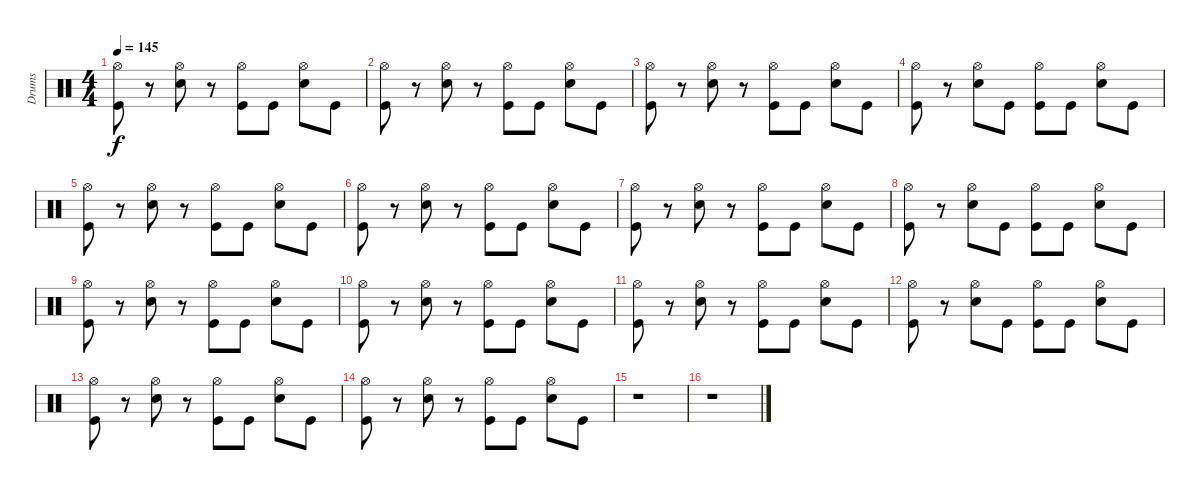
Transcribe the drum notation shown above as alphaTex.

\track ("Drums" "Drums") {instrument percussion}
\staff {score}
\articulation defaults
\ts (4 4)
\tempo 145
\clef neutral
\ks c
("Hi-Hat (open)" "Kick (hit)").8{dy f} r.8 ("Hi-Hat (open)" "Snare (hit) 2").8 r.8 ("Hi-Hat (open)" "Kick (hit)").8 "Kick (hit)".8 ("Hi-Hat (open)" "Snare (hit) 2").8 "Kick (hit)".8 |
("Hi-Hat (open)" "Kick (hit)").8 r.8 ("Hi-Hat (open)" "Snare (hit) 2").8 r.8 ("Hi-Hat (open)" "Kick (hit)").8 "Kick (hit)".8 ("Hi-Hat (open)" "Snare (hit) 2").8 "Kick (hit)".8 |
("Hi-Hat (open)" "Kick (hit)").8 r.8 ("Hi-Hat (open)" "Snare (hit) 2").8 r.8 ("Hi-Hat (open)" "Kick (hit)").8 "Kick (hit)".8 ("Hi-Hat (open)" "Snare (hit) 2").8 "Kick (hit)".8 |
("Hi-Hat (open)" "Kick (hit)").8 r.8 ("Hi-Hat (open)" "Snare (hit) 2").8 "Kick (hit)".8 ("Hi-Hat (open)" "Kick (hit)").8 "Kick (hit)".8 ("Hi-Hat (open)" "Snare (hit) 2").8 "Kick (hit)".8 |
("Hi-Hat (open)" "Kick (hit)").8 r.8 ("Hi-Hat (open)" "Snare (hit) 2").8 r.8 ("Hi-Hat (open)" "Kick (hit)").8 "Kick (hit)".8 ("Hi-Hat (open)" "Snare (hit) 2").8 "Kick (hit)".8 |
("Hi-Hat (open)" "Kick (hit)").8 r.8 ("Hi-Hat (open)" "Snare (hit) 2").8 r.8 ("Hi-Hat (open)" "Kick (hit)").8 "Kick (hit)".8 ("Hi-Hat (open)" "Snare (hit) 2").8 "Kick (hit)".8 |
("Hi-Hat (open)" "Kick (hit)").8 r.8 ("Hi-Hat (open)" "Snare (hit) 2").8 r.8 ("Hi-Hat (open)" "Kick (hit)").8 "Kick (hit)".8 ("Hi-Hat (open)" "Snare (hit) 2").8 "Kick (hit)".8 |
("Hi-Hat (open)" "Kick (hit)").8 r.8 ("Hi-Hat (open)" "Snare (hit) 2").8 "Kick (hit)".8 ("Hi-Hat (open)" "Kick (hit)").8 "Kick (hit)".8 ("Hi-Hat (open)" "Snare (hit) 2").8 "Kick (hit)".8 |
("Hi-Hat (open)" "Kick (hit)").8 r.8 ("Hi-Hat (open)" "Snare (hit) 2").8 r.8 ("Hi-Hat (open)" "Kick (hit)").8 "Kick (hit)".8 ("Hi-Hat (open)" "Snare (hit) 2").8 "Kick (hit)".8 |
("Hi-Hat (open)" "Kick (hit)").8 r.8 ("Hi-Hat (open)" "Snare (hit) 2").8 r.8 ("Hi-Hat (open)" "Kick (hit)").8 "Kick (hit)".8 ("Hi-Hat (open)" "Snare (hit) 2").8 "Kick (hit)".8 |
("Hi-Hat (open)" "Kick (hit)").8 r.8 ("Hi-Hat (open)" "Snare (hit) 2").8 r.8 ("Hi-Hat (open)" "Kick (hit)").8 "Kick (hit)".8 ("Hi-Hat (open)" "Snare (hit) 2").8 "Kick (hit)".8 |
("Hi-Hat (open)" "Kick (hit)").8 r.8 ("Hi-Hat (open)" "Snare (hit) 2").8 "Kick (hit)".8 ("Hi-Hat (open)" "Kick (hit)").8 "Kick (hit)".8 ("Hi-Hat (open)" "Snare (hit) 2").8 "Kick (hit)".8 |
("Hi-Hat (open)" "Kick (hit)").8 r.8 ("Hi-Hat (open)" "Snare (hit) 2").8 r.8 ("Hi-Hat (open)" "Kick (hit)").8 "Kick (hit)".8 ("Hi-Hat (open)" "Snare (hit) 2").8 "Kick (hit)".8 |
("Hi-Hat (open)" "Kick (hit)").8 r.8 ("Hi-Hat (open)" "Snare (hit) 2").8 r.8 ("Hi-Hat (open)" "Kick (hit)").8 "Kick (hit)".8 ("Hi-Hat (open)" "Snare (hit) 2").8 "Kick (hit)".8 |
r.1 |
r.1
